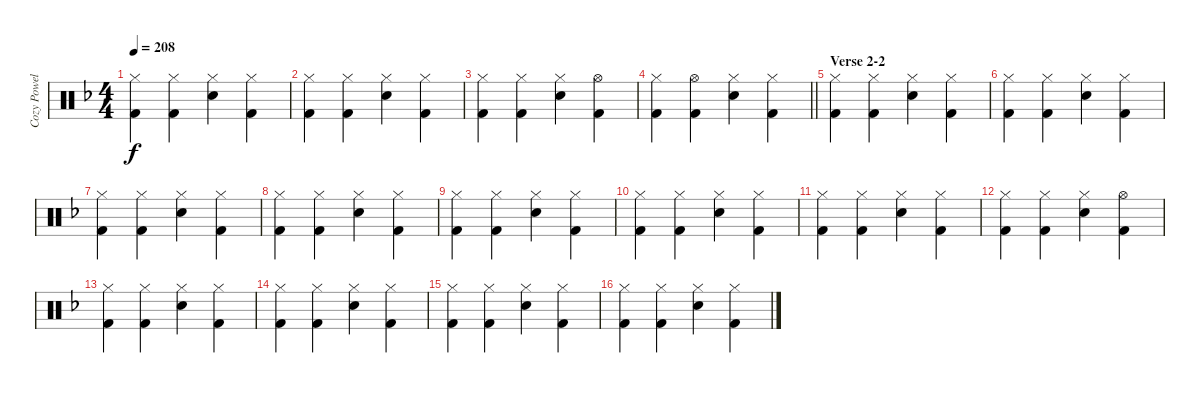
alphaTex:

\track ("Cozy Powell" "Cozy Powel") {instrument percussion}
\staff {score}
\articulation defaults
\ts (4 4)
\tempo 208
\clef neutral
\ks f
("Hi-Hat (closed)" "Kick (hit) 2").4{dy f} ("Hi-Hat (closed)" "Kick (hit) 2").4 ("Hi-Hat (closed)" "Snare (hit) 2").4 ("Hi-Hat (closed)" "Kick (hit) 2").4 |
("Hi-Hat (closed)" "Kick (hit) 2").4 ("Hi-Hat (closed)" "Kick (hit) 2").4 ("Hi-Hat (closed)" "Snare (hit) 2").4 ("Hi-Hat (closed)" "Kick (hit) 2").4 |
("Hi-Hat (closed)" "Kick (hit) 2").4 ("Hi-Hat (closed)" "Kick (hit) 2").4 ("Hi-Hat (closed)" "Snare (hit) 2").4 ("Hi-Hat (open)" "Kick (hit) 2").4 |
\barLineRight lightlight
("Hi-Hat (closed)" "Kick (hit) 2").4 ("Hi-Hat (open)" "Kick (hit) 2").4 ("Hi-Hat (closed)" "Snare (hit) 2").4 ("Hi-Hat (closed)" "Kick (hit) 2").4 |
\section ("" "Verse 2-2")
("Hi-Hat (closed)" "Kick (hit) 2").4 ("Hi-Hat (closed)" "Kick (hit) 2").4 ("Hi-Hat (closed)" "Snare (hit) 2").4 ("Hi-Hat (closed)" "Kick (hit) 2").4 |
("Hi-Hat (closed)" "Kick (hit) 2").4 ("Hi-Hat (closed)" "Kick (hit) 2").4 ("Hi-Hat (closed)" "Snare (hit) 2").4 ("Hi-Hat (closed)" "Kick (hit) 2").4 |
("Hi-Hat (closed)" "Kick (hit) 2").4 ("Hi-Hat (closed)" "Kick (hit) 2").4 ("Hi-Hat (closed)" "Snare (hit) 2").4 ("Hi-Hat (closed)" "Kick (hit) 2").4 |
("Hi-Hat (closed)" "Kick (hit) 2").4 ("Hi-Hat (closed)" "Kick (hit) 2").4 ("Hi-Hat (closed)" "Snare (hit) 2").4 ("Hi-Hat (closed)" "Kick (hit) 2").4 |
("Hi-Hat (closed)" "Kick (hit) 2").4 ("Hi-Hat (closed)" "Kick (hit) 2").4 ("Hi-Hat (closed)" "Snare (hit) 2").4 ("Hi-Hat (closed)" "Kick (hit) 2").4 |
("Hi-Hat (closed)" "Kick (hit) 2").4 ("Hi-Hat (closed)" "Kick (hit) 2").4 ("Hi-Hat (closed)" "Snare (hit) 2").4 ("Hi-Hat (closed)" "Kick (hit) 2").4 |
("Hi-Hat (closed)" "Kick (hit) 2").4 ("Hi-Hat (closed)" "Kick (hit) 2").4 ("Hi-Hat (closed)" "Snare (hit) 2").4 ("Hi-Hat (closed)" "Kick (hit) 2").4 |
("Hi-Hat (closed)" "Kick (hit) 2").4 ("Hi-Hat (closed)" "Kick (hit) 2").4 ("Hi-Hat (closed)" "Snare (hit) 2").4 ("Hi-Hat (open)" "Kick (hit) 2").4 |
("Hi-Hat (closed)" "Kick (hit) 2").4 ("Hi-Hat (closed)" "Kick (hit) 2").4 ("Hi-Hat (closed)" "Snare (hit) 2").4 ("Hi-Hat (closed)" "Kick (hit) 2").4 |
("Hi-Hat (closed)" "Kick (hit) 2").4 ("Hi-Hat (closed)" "Kick (hit) 2").4 ("Hi-Hat (closed)" "Snare (hit) 2").4 ("Hi-Hat (closed)" "Kick (hit) 2").4 |
("Hi-Hat (closed)" "Kick (hit) 2").4 ("Hi-Hat (closed)" "Kick (hit) 2").4 ("Hi-Hat (closed)" "Snare (hit) 2").4 ("Hi-Hat (closed)" "Kick (hit) 2").4 |
("Hi-Hat (closed)" "Kick (hit) 2").4 ("Hi-Hat (closed)" "Kick (hit) 2").4 ("Hi-Hat (closed)" "Snare (hit) 2").4 ("Hi-Hat (closed)" "Kick (hit) 2").4
